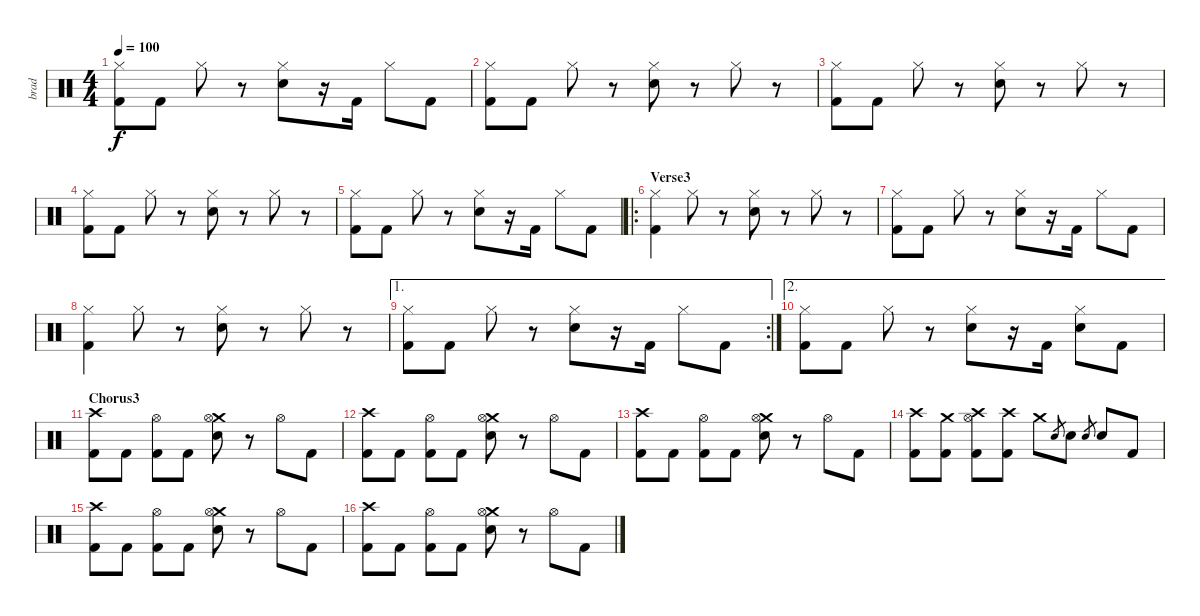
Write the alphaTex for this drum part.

\track ("brad" "brad") {instrument percussion}
\staff {score}
\articulation defaults
\ts (4 4)
\tempo 100
\clef neutral
\ks c
("Hi-Hat (closed)" "Kick (hit) 2").8{dy f} "Kick (hit) 2".8 "Hi-Hat (closed)".8 r.8 ("Hi-Hat (closed)" "Electric Snare (hit)").8 r.16 "Kick (hit) 2".16 "Hi-Hat (closed)".8 "Kick (hit) 2".8 |
("Hi-Hat (closed)" "Kick (hit) 2").8 "Kick (hit) 2".8 "Hi-Hat (closed)".8 r.8 ("Hi-Hat (closed)" "Electric Snare (hit)").8 r.8 "Hi-Hat (closed)".8 r.8 |
("Hi-Hat (closed)" "Kick (hit) 2").8 "Kick (hit) 2".8 "Hi-Hat (closed)".8 r.8 ("Hi-Hat (closed)" "Electric Snare (hit)").8 r.8 "Hi-Hat (closed)".8 r.8 |
("Hi-Hat (closed)" "Kick (hit) 2").8 "Kick (hit) 2".8 "Hi-Hat (closed)".8 r.8 ("Hi-Hat (closed)" "Electric Snare (hit)").8 r.8 "Hi-Hat (closed)".8 r.8 |
("Hi-Hat (closed)" "Kick (hit) 2").8 "Kick (hit) 2".8 "Hi-Hat (closed)".8 r.8 ("Hi-Hat (closed)" "Electric Snare (hit)").8 r.16 "Kick (hit) 2".16 "Hi-Hat (closed)".8 "Kick (hit) 2".8 |
\ro
\section ("" "Verse3")
("Hi-Hat (closed)" "Kick (hit) 2").4 "Hi-Hat (closed)".8 r.8 ("Hi-Hat (closed)" "Electric Snare (hit)").8 r.8 "Hi-Hat (closed)".8 r.8 |
("Hi-Hat (closed)" "Kick (hit) 2").8 "Kick (hit) 2".8 "Hi-Hat (closed)".8 r.8 ("Hi-Hat (closed)" "Electric Snare (hit)").8 r.16 "Kick (hit) 2".16 "Hi-Hat (closed)".8 "Kick (hit) 2".8 |
("Hi-Hat (closed)" "Kick (hit) 2").4 "Hi-Hat (closed)".8 r.8 ("Hi-Hat (closed)" "Electric Snare (hit)").8 r.8 "Hi-Hat (closed)".8 r.8 |
\ae 1
\rc 2
("Hi-Hat (closed)" "Kick (hit) 2").8 "Kick (hit) 2".8 "Hi-Hat (closed)".8 r.8 ("Hi-Hat (closed)" "Electric Snare (hit)").8 r.16 "Kick (hit) 2".16 "Hi-Hat (closed)".8 "Kick (hit) 2".8 |
\ae 2
("Hi-Hat (closed)" "Kick (hit) 2").8 "Kick (hit) 2".8 "Hi-Hat (closed)".8 r.8 ("Hi-Hat (closed)" "Electric Snare (hit)").8 r.16 "Kick (hit) 2".16 ("Hi-Hat (closed)" "Electric Snare (hit)").8 "Kick (hit) 2".8 |
\section ("" "Chorus3")
("Crash high (hit)" "Kick (hit) 2").8 "Kick (hit) 2".8 ("Hi-Hat (open)" "Kick (hit) 2").8 "Kick (hit) 2".8 ("Crash medium (hit)" "Hi-Hat (open)" "Electric Snare (hit)").8 r.8 "Hi-Hat (open)".8 "Kick (hit) 2".8 |
("Crash high (hit)" "Kick (hit) 2").8 "Kick (hit) 2".8 ("Hi-Hat (open)" "Kick (hit) 2").8 "Kick (hit) 2".8 ("Crash medium (hit)" "Hi-Hat (open)" "Electric Snare (hit)").8 r.8 "Hi-Hat (open)".8 "Kick (hit) 2".8 |
("Crash high (hit)" "Kick (hit) 2").8 "Kick (hit) 2".8 ("Hi-Hat (open)" "Kick (hit) 2").8 "Kick (hit) 2".8 ("Crash medium (hit)" "Hi-Hat (open)" "Electric Snare (hit)").8 r.8 "Hi-Hat (open)".8 "Kick (hit) 2".8 |
("Crash high (hit)" "Kick (hit) 2").8 ("Crash medium (hit)" "Kick (hit) 2").8 ("Crash high (hit)" "Hi-Hat (open)" "Kick (hit) 2").8 ("Crash high (hit)" "Kick (hit) 2").8 "Crash medium (hit)".8 "Electric Snare (hit)".8{gr} "Electric Snare (hit)".8 "Electric Snare (hit)".8{gr} "Electric Snare (hit)".8 "Kick (hit) 2".8 |
("Crash high (hit)" "Kick (hit) 2").8 "Kick (hit) 2".8 ("Hi-Hat (open)" "Kick (hit) 2").8 "Kick (hit) 2".8 ("Crash medium (hit)" "Hi-Hat (open)" "Electric Snare (hit)").8 r.8 "Hi-Hat (open)".8 "Kick (hit) 2".8 |
("Crash high (hit)" "Kick (hit) 2").8 "Kick (hit) 2".8 ("Hi-Hat (open)" "Kick (hit) 2").8 "Kick (hit) 2".8 ("Crash medium (hit)" "Hi-Hat (open)" "Electric Snare (hit)").8 r.8 "Hi-Hat (open)".8 "Kick (hit) 2".8
